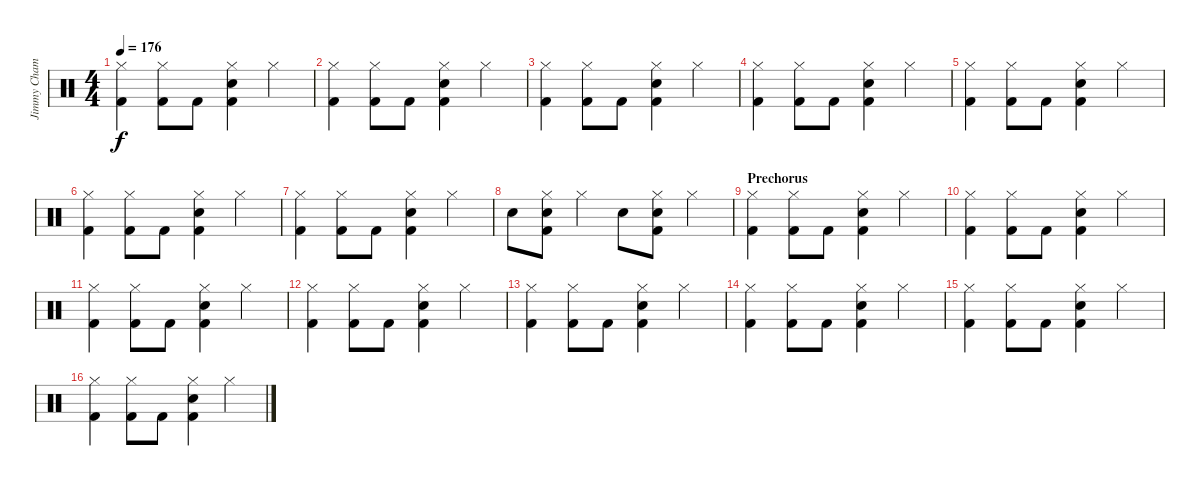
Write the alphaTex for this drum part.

\track ("Jimmy Chamberlin" "Jimmy Cham") {instrument percussion}
\staff {score}
\articulation defaults
\ts (4 4)
\tempo 176
\clef neutral
\ks c
("Hi-Hat (closed)" "Kick (hit) 2").4{dy f} ("Hi-Hat (closed)" "Kick (hit) 2").8 "Kick (hit) 2".8 ("Hi-Hat (closed)" "Snare (hit) 2" "Kick (hit) 2").4 "Hi-Hat (closed)".4 |
("Hi-Hat (closed)" "Kick (hit) 2").4 ("Hi-Hat (closed)" "Kick (hit) 2").8 "Kick (hit) 2".8 ("Hi-Hat (closed)" "Snare (hit) 2" "Kick (hit) 2").4 "Hi-Hat (closed)".4 |
("Hi-Hat (closed)" "Kick (hit) 2").4 ("Hi-Hat (closed)" "Kick (hit) 2").8 "Kick (hit) 2".8 ("Hi-Hat (closed)" "Snare (hit) 2" "Kick (hit) 2").4 "Hi-Hat (closed)".4 |
("Hi-Hat (closed)" "Kick (hit) 2").4 ("Hi-Hat (closed)" "Kick (hit) 2").8 "Kick (hit) 2".8 ("Hi-Hat (closed)" "Snare (hit) 2" "Kick (hit) 2").4 "Hi-Hat (closed)".4 |
("Hi-Hat (closed)" "Kick (hit) 2").4 ("Hi-Hat (closed)" "Kick (hit) 2").8 "Kick (hit) 2".8 ("Hi-Hat (closed)" "Snare (hit) 2" "Kick (hit) 2").4 "Hi-Hat (closed)".4 |
("Hi-Hat (closed)" "Kick (hit) 2").4 ("Hi-Hat (closed)" "Kick (hit) 2").8 "Kick (hit) 2".8 ("Hi-Hat (closed)" "Snare (hit) 2" "Kick (hit) 2").4 "Hi-Hat (closed)".4 |
("Hi-Hat (closed)" "Kick (hit) 2").4 ("Hi-Hat (closed)" "Kick (hit) 2").8 "Kick (hit) 2".8 ("Hi-Hat (closed)" "Snare (hit) 2" "Kick (hit) 2").4 "Hi-Hat (closed)".4 |
"Snare (hit) 2".8 ("Hi-Hat (closed)" "Snare (hit) 2" "Kick (hit) 2").8 "Hi-Hat (closed)".4 "Snare (hit) 2".8 ("Hi-Hat (closed)" "Snare (hit) 2" "Kick (hit) 2").8 "Hi-Hat (closed)".4 |
\section ("" "Prechorus")
("Hi-Hat (closed)" "Kick (hit) 2").4 ("Hi-Hat (closed)" "Kick (hit) 2").8 "Kick (hit) 2".8 ("Hi-Hat (closed)" "Snare (hit) 2" "Kick (hit) 2").4 "Hi-Hat (closed)".4 |
("Hi-Hat (closed)" "Kick (hit) 2").4 ("Hi-Hat (closed)" "Kick (hit) 2").8 "Kick (hit) 2".8 ("Hi-Hat (closed)" "Snare (hit) 2" "Kick (hit) 2").4 "Hi-Hat (closed)".4 |
("Hi-Hat (closed)" "Kick (hit) 2").4 ("Hi-Hat (closed)" "Kick (hit) 2").8 "Kick (hit) 2".8 ("Hi-Hat (closed)" "Snare (hit) 2" "Kick (hit) 2").4 "Hi-Hat (closed)".4 |
("Hi-Hat (closed)" "Kick (hit) 2").4 ("Hi-Hat (closed)" "Kick (hit) 2").8 "Kick (hit) 2".8 ("Hi-Hat (closed)" "Snare (hit) 2" "Kick (hit) 2").4 "Hi-Hat (closed)".4 |
("Hi-Hat (closed)" "Kick (hit) 2").4 ("Hi-Hat (closed)" "Kick (hit) 2").8 "Kick (hit) 2".8 ("Hi-Hat (closed)" "Snare (hit) 2" "Kick (hit) 2").4 "Hi-Hat (closed)".4 |
("Hi-Hat (closed)" "Kick (hit) 2").4 ("Hi-Hat (closed)" "Kick (hit) 2").8 "Kick (hit) 2".8 ("Hi-Hat (closed)" "Snare (hit) 2" "Kick (hit) 2").4 "Hi-Hat (closed)".4 |
("Hi-Hat (closed)" "Kick (hit) 2").4 ("Hi-Hat (closed)" "Kick (hit) 2").8 "Kick (hit) 2".8 ("Hi-Hat (closed)" "Snare (hit) 2" "Kick (hit) 2").4 "Hi-Hat (closed)".4 |
("Hi-Hat (closed)" "Kick (hit) 2").4 ("Hi-Hat (closed)" "Kick (hit) 2").8 "Kick (hit) 2".8 ("Hi-Hat (closed)" "Snare (hit) 2" "Kick (hit) 2").4 "Hi-Hat (closed)".4
